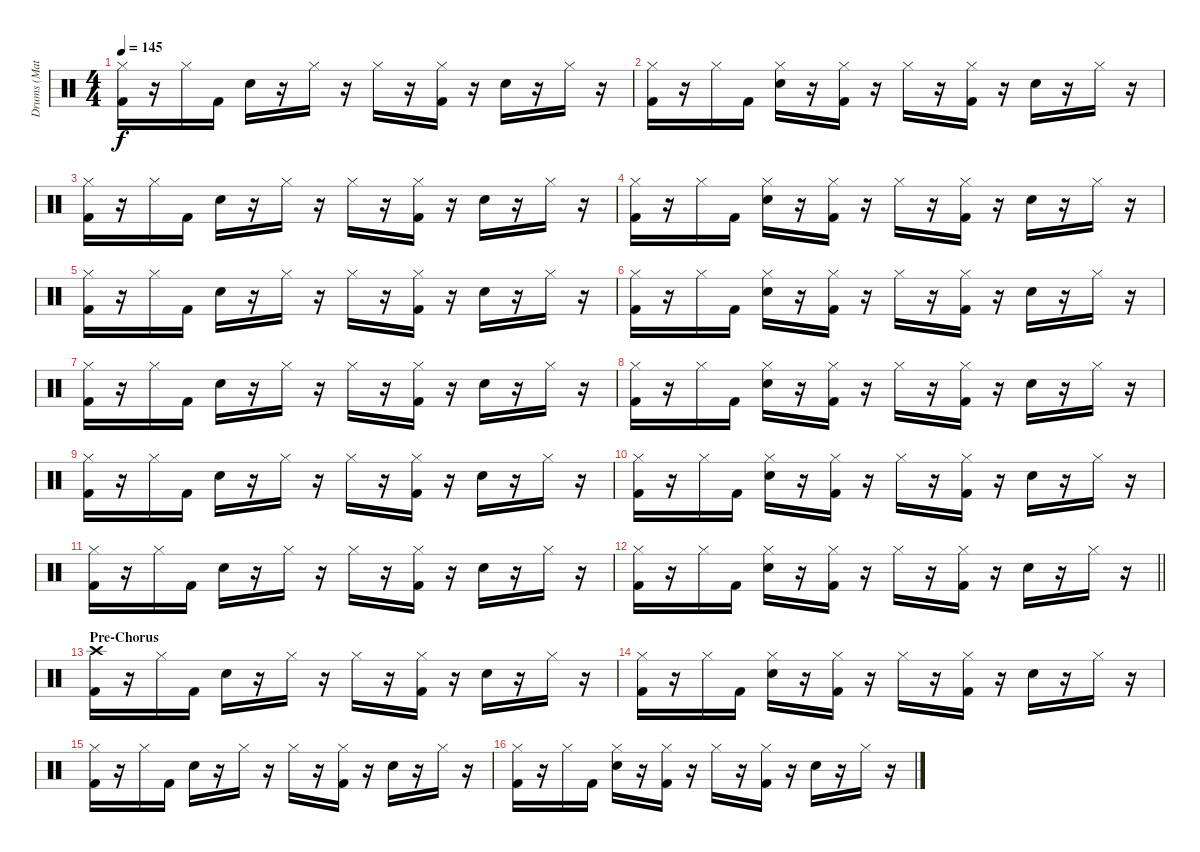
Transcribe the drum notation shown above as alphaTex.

\track ("Drums (Matt)" "Drums (Mat") {instrument percussion}
\staff {score}
\articulation defaults
\ts (4 4)
\tempo 145
\clef neutral
\ks c
("Hi-Hat (closed)" "Kick (hit) 2").16{dy f} r.16 "Hi-Hat (closed)".16 "Kick (hit) 2".16 "Electric Snare (hit)".16 r.16 "Hi-Hat (closed)".16 r.16 "Hi-Hat (closed)".16 r.16 ("Hi-Hat (closed)" "Kick (hit) 2").16 r.16 "Electric Snare (hit)".16 r.16 "Hi-Hat (closed)".16 r.16 |
("Hi-Hat (closed)" "Kick (hit) 2").16 r.16 "Hi-Hat (closed)".16 "Kick (hit) 2".16 ("Hi-Hat (closed)" "Electric Snare (hit)").16 r.16 ("Hi-Hat (closed)" "Kick (hit) 2").16 r.16 "Hi-Hat (closed)".16 r.16 ("Hi-Hat (closed)" "Kick (hit) 2").16 r.16 "Electric Snare (hit)".16 r.16 "Hi-Hat (closed)".16 r.16 |
("Hi-Hat (closed)" "Kick (hit) 2").16 r.16 "Hi-Hat (closed)".16 "Kick (hit) 2".16 "Electric Snare (hit)".16 r.16 "Hi-Hat (closed)".16 r.16 "Hi-Hat (closed)".16 r.16 ("Hi-Hat (closed)" "Kick (hit) 2").16 r.16 "Electric Snare (hit)".16 r.16 "Hi-Hat (closed)".16 r.16 |
("Hi-Hat (closed)" "Kick (hit) 2").16 r.16 "Hi-Hat (closed)".16 "Kick (hit) 2".16 ("Hi-Hat (closed)" "Electric Snare (hit)").16 r.16 ("Hi-Hat (closed)" "Kick (hit) 2").16 r.16 "Hi-Hat (closed)".16 r.16 ("Hi-Hat (closed)" "Kick (hit) 2").16 r.16 "Electric Snare (hit)".16 r.16 "Hi-Hat (closed)".16 r.16 |
("Hi-Hat (closed)" "Kick (hit) 2").16 r.16 "Hi-Hat (closed)".16 "Kick (hit) 2".16 "Electric Snare (hit)".16 r.16 "Hi-Hat (closed)".16 r.16 "Hi-Hat (closed)".16 r.16 ("Hi-Hat (closed)" "Kick (hit) 2").16 r.16 "Electric Snare (hit)".16 r.16 "Hi-Hat (closed)".16 r.16 |
("Hi-Hat (closed)" "Kick (hit) 2").16 r.16 "Hi-Hat (closed)".16 "Kick (hit) 2".16 ("Hi-Hat (closed)" "Electric Snare (hit)").16 r.16 ("Hi-Hat (closed)" "Kick (hit) 2").16 r.16 "Hi-Hat (closed)".16 r.16 ("Hi-Hat (closed)" "Kick (hit) 2").16 r.16 "Electric Snare (hit)".16 r.16 "Hi-Hat (closed)".16 r.16 |
("Hi-Hat (closed)" "Kick (hit) 2").16 r.16 "Hi-Hat (closed)".16 "Kick (hit) 2".16 "Electric Snare (hit)".16 r.16 "Hi-Hat (closed)".16 r.16 "Hi-Hat (closed)".16 r.16 ("Hi-Hat (closed)" "Kick (hit) 2").16 r.16 "Electric Snare (hit)".16 r.16 "Hi-Hat (closed)".16 r.16 |
("Hi-Hat (closed)" "Kick (hit) 2").16 r.16 "Hi-Hat (closed)".16 "Kick (hit) 2".16 ("Hi-Hat (closed)" "Electric Snare (hit)").16 r.16 ("Hi-Hat (closed)" "Kick (hit) 2").16 r.16 "Hi-Hat (closed)".16 r.16 ("Hi-Hat (closed)" "Kick (hit) 2").16 r.16 "Electric Snare (hit)".16 r.16 "Hi-Hat (closed)".16 r.16 |
("Hi-Hat (closed)" "Kick (hit) 2").16 r.16 "Hi-Hat (closed)".16 "Kick (hit) 2".16 "Electric Snare (hit)".16 r.16 "Hi-Hat (closed)".16 r.16 "Hi-Hat (closed)".16 r.16 ("Hi-Hat (closed)" "Kick (hit) 2").16 r.16 "Electric Snare (hit)".16 r.16 "Hi-Hat (closed)".16 r.16 |
("Hi-Hat (closed)" "Kick (hit) 2").16 r.16 "Hi-Hat (closed)".16 "Kick (hit) 2".16 ("Hi-Hat (closed)" "Electric Snare (hit)").16 r.16 ("Hi-Hat (closed)" "Kick (hit) 2").16 r.16 "Hi-Hat (closed)".16 r.16 ("Hi-Hat (closed)" "Kick (hit) 2").16 r.16 "Electric Snare (hit)".16 r.16 "Hi-Hat (closed)".16 r.16 |
("Hi-Hat (closed)" "Kick (hit) 2").16 r.16 "Hi-Hat (closed)".16 "Kick (hit) 2".16 "Electric Snare (hit)".16 r.16 "Hi-Hat (closed)".16 r.16 "Hi-Hat (closed)".16 r.16 ("Hi-Hat (closed)" "Kick (hit) 2").16 r.16 "Electric Snare (hit)".16 r.16 "Hi-Hat (closed)".16 r.16 |
\barLineRight lightlight
("Hi-Hat (closed)" "Kick (hit) 2").16 r.16 "Hi-Hat (closed)".16 "Kick (hit) 2".16 ("Hi-Hat (closed)" "Electric Snare (hit)").16 r.16 ("Hi-Hat (closed)" "Kick (hit) 2").16 r.16 "Hi-Hat (closed)".16 r.16 ("Hi-Hat (closed)" "Kick (hit) 2").16 r.16 "Electric Snare (hit)".16 r.16 "Hi-Hat (closed)".16 r.16 |
\section ("" "Pre-Chorus")
("Crash high (hit)" "Kick (hit) 2").16 r.16 "Hi-Hat (closed)".16 "Kick (hit) 2".16 "Electric Snare (hit)".16 r.16 "Hi-Hat (closed)".16 r.16 "Hi-Hat (closed)".16 r.16 ("Hi-Hat (closed)" "Kick (hit) 2").16 r.16 "Electric Snare (hit)".16 r.16 "Hi-Hat (closed)".16 r.16 |
("Hi-Hat (closed)" "Kick (hit) 2").16 r.16 "Hi-Hat (closed)".16 "Kick (hit) 2".16 ("Hi-Hat (closed)" "Electric Snare (hit)").16 r.16 ("Hi-Hat (closed)" "Kick (hit) 2").16 r.16 "Hi-Hat (closed)".16 r.16 ("Hi-Hat (closed)" "Kick (hit) 2").16 r.16 "Electric Snare (hit)".16 r.16 "Hi-Hat (closed)".16 r.16 |
("Hi-Hat (closed)" "Kick (hit) 2").16 r.16 "Hi-Hat (closed)".16 "Kick (hit) 2".16 "Electric Snare (hit)".16 r.16 "Hi-Hat (closed)".16 r.16 "Hi-Hat (closed)".16 r.16 ("Hi-Hat (closed)" "Kick (hit) 2").16 r.16 "Electric Snare (hit)".16 r.16 "Hi-Hat (closed)".16 r.16 |
("Hi-Hat (closed)" "Kick (hit) 2").16 r.16 "Hi-Hat (closed)".16 "Kick (hit) 2".16 ("Hi-Hat (closed)" "Electric Snare (hit)").16 r.16 ("Hi-Hat (closed)" "Kick (hit) 2").16 r.16 "Hi-Hat (closed)".16 r.16 ("Hi-Hat (closed)" "Kick (hit) 2").16 r.16 "Electric Snare (hit)".16 r.16 "Hi-Hat (closed)".16 r.16
